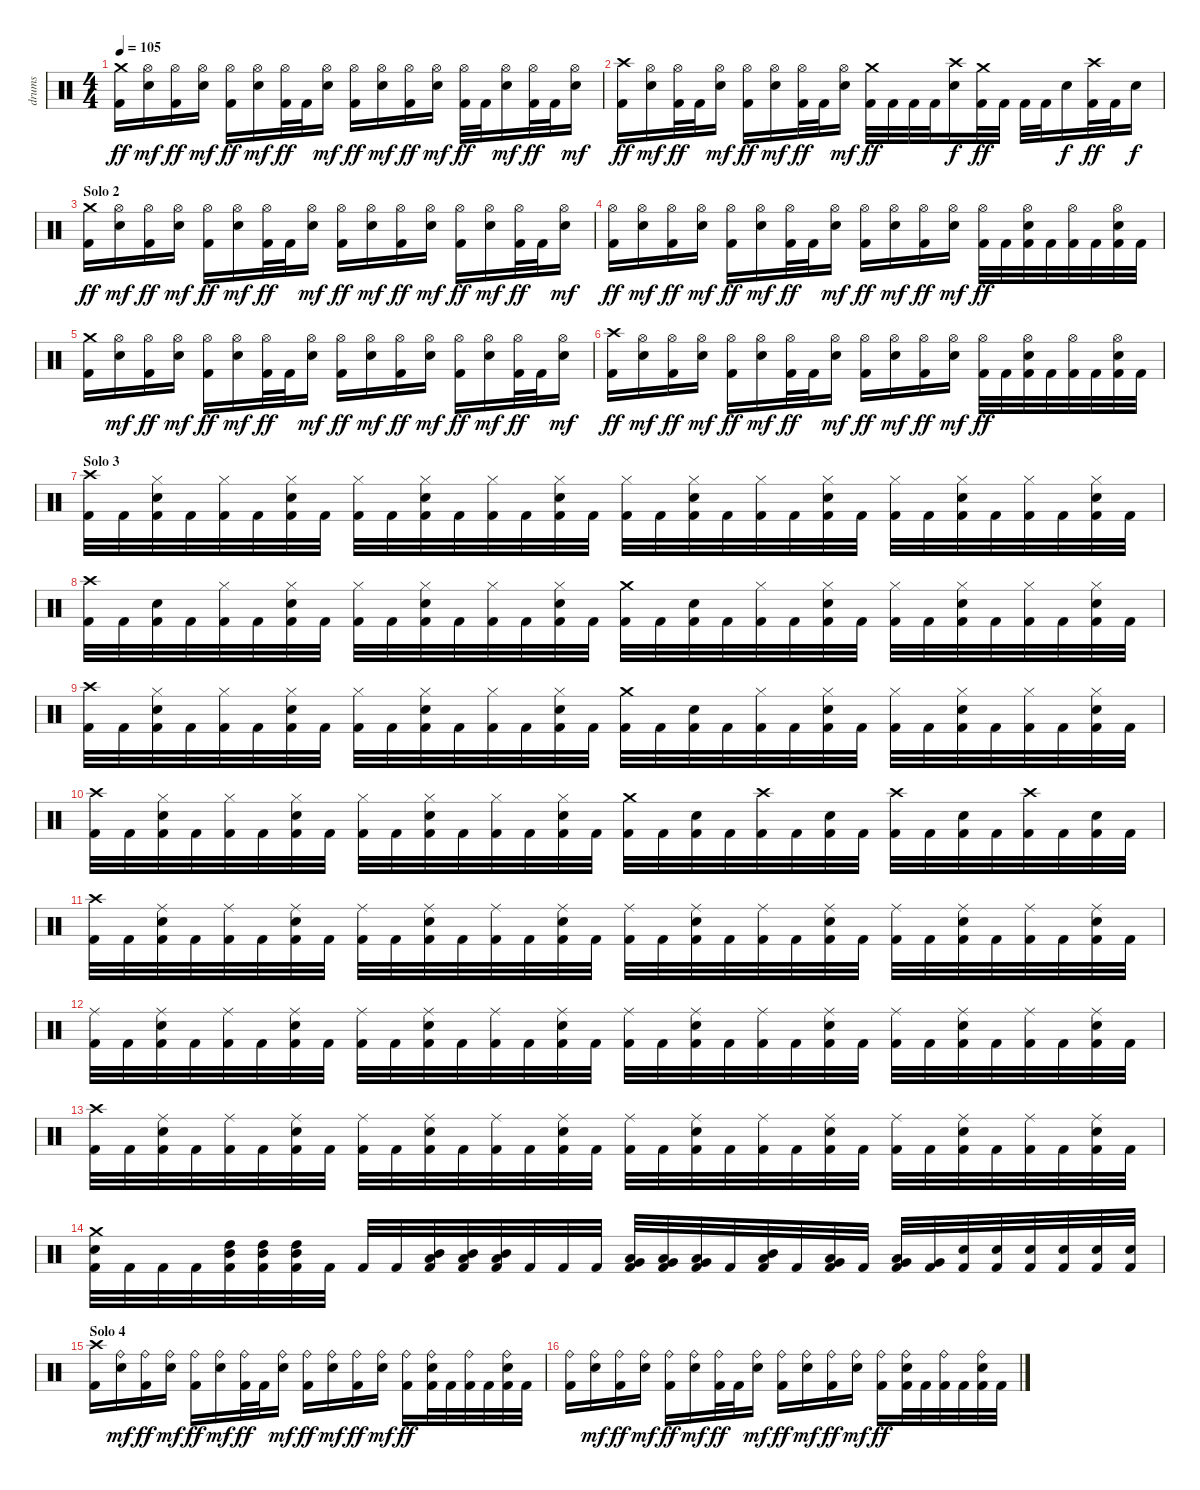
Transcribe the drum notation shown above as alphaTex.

\track ("drums" "drums") {instrument percussion}
\staff {score}
\articulation defaults
\ts (4 4)
\tempo 105
\clef neutral
\ks c
("Crash medium (hit)" "Kick (hit) 2").16{dy ff} ("Hi-Hat (open)" "Snare (hit) 2").16{dy mf} ("Hi-Hat (open)" "Kick (hit) 2").16{dy ff} ("Hi-Hat (open)" "Snare (hit) 2").16{dy mf} ("Hi-Hat (open)" "Kick (hit) 2").16{dy ff} ("Hi-Hat (open)" "Snare (hit) 2").16{dy mf} ("Hi-Hat (open)" "Kick (hit) 2").32{dy ff} "Kick (hit) 2".32 ("Hi-Hat (open)" "Snare (hit) 2").16{dy mf} ("Hi-Hat (open)" "Kick (hit) 2").16{dy ff} ("Hi-Hat (open)" "Snare (hit) 2").16{dy mf} ("Hi-Hat (open)" "Kick (hit) 2").16{dy ff} ("Hi-Hat (open)" "Snare (hit) 2").16{dy mf} ("Hi-Hat (open)" "Kick (hit) 2").32{dy ff} "Kick (hit) 2".32 ("Hi-Hat (open)" "Snare (hit) 2").16{dy mf} ("Hi-Hat (open)" "Kick (hit) 2").32{dy ff} "Kick (hit) 2".32 ("Hi-Hat (open)" "Snare (hit) 2").16{dy mf} |
("Crash high (hit)" "Kick (hit) 2").16{dy ff} ("Hi-Hat (open)" "Snare (hit) 2").16{dy mf} ("Hi-Hat (open)" "Kick (hit) 2").32{dy ff} "Kick (hit) 2".32 ("Hi-Hat (open)" "Snare (hit) 2").16{dy mf} ("Hi-Hat (open)" "Kick (hit) 2").16{dy ff} ("Hi-Hat (open)" "Snare (hit) 2").16{dy mf} ("Hi-Hat (open)" "Kick (hit) 2").32{dy ff} "Kick (hit) 2".32 ("Hi-Hat (open)" "Snare (hit) 2").16{dy mf} ("Crash medium (hit)" "Kick (hit) 2").32{dy ff} "Kick (hit) 2".32 "Kick (hit) 2".32 "Kick (hit) 2".32 ("Crash high (hit)" "Snare (hit) 2").16{dy f} ("Crash medium (hit)" "Kick (hit) 2").32{dy ff} "Kick (hit) 2".32 "Kick (hit) 2".32 "Kick (hit) 2".32 "Snare (hit) 2".16{dy f} ("Crash high (hit)" "Kick (hit) 2").32{dy ff} "Kick (hit) 2".32 "Snare (hit) 2".16{dy f} |
\section ("" "Solo 2")
("Crash medium (hit)" "Kick (hit) 2").16{dy ff} ("Hi-Hat (open)" "Snare (hit) 2").16{dy mf} ("Hi-Hat (open)" "Kick (hit) 2").16{dy ff} ("Hi-Hat (open)" "Snare (hit) 2").16{dy mf} ("Hi-Hat (open)" "Kick (hit) 2").16{dy ff} ("Hi-Hat (open)" "Snare (hit) 2").16{dy mf} ("Hi-Hat (open)" "Kick (hit) 2").32{dy ff} "Kick (hit) 2".32 ("Hi-Hat (open)" "Snare (hit) 2").16{dy mf} ("Hi-Hat (open)" "Kick (hit) 2").16{dy ff} ("Hi-Hat (open)" "Snare (hit) 2").16{dy mf} ("Hi-Hat (open)" "Kick (hit) 2").16{dy ff} ("Hi-Hat (open)" "Snare (hit) 2").16{dy mf} ("Hi-Hat (open)" "Kick (hit) 2").16{dy ff} ("Hi-Hat (open)" "Snare (hit) 2").16{dy mf} ("Hi-Hat (open)" "Kick (hit) 2").32{dy ff} "Kick (hit) 2".32 ("Hi-Hat (open)" "Snare (hit) 2").16{dy mf} |
("Hi-Hat (open)" "Kick (hit) 2").16{dy ff} ("Hi-Hat (open)" "Snare (hit) 2").16{dy mf} ("Hi-Hat (open)" "Kick (hit) 2").16{dy ff} ("Hi-Hat (open)" "Snare (hit) 2").16{dy mf} ("Hi-Hat (open)" "Kick (hit) 2").16{dy ff} ("Hi-Hat (open)" "Snare (hit) 2").16{dy mf} ("Hi-Hat (open)" "Kick (hit) 2").32{dy ff} "Kick (hit) 2".32 ("Hi-Hat (open)" "Snare (hit) 2").16{dy mf} ("Hi-Hat (open)" "Kick (hit) 2").16{dy ff} ("Hi-Hat (open)" "Snare (hit) 2").16{dy mf} ("Hi-Hat (open)" "Kick (hit) 2").16{dy ff} ("Hi-Hat (open)" "Snare (hit) 2").16{dy mf} ("Hi-Hat (open)" "Kick (hit) 2").32{dy ff} "Kick (hit) 2".32 ("Hi-Hat (open)" "Snare (hit) 2" "Kick (hit) 2").32 "Kick (hit) 2".32 ("Hi-Hat (open)" "Kick (hit) 2").32 "Kick (hit) 2".32 ("Hi-Hat (open)" "Snare (hit) 2" "Kick (hit) 2").32 "Kick (hit) 2".32 |
("Crash medium (hit)" "Kick (hit) 2").16 ("Hi-Hat (open)" "Snare (hit) 2").16{dy mf} ("Hi-Hat (open)" "Kick (hit) 2").16{dy ff} ("Hi-Hat (open)" "Snare (hit) 2").16{dy mf} ("Hi-Hat (open)" "Kick (hit) 2").16{dy ff} ("Hi-Hat (open)" "Snare (hit) 2").16{dy mf} ("Hi-Hat (open)" "Kick (hit) 2").32{dy ff} "Kick (hit) 2".32 ("Hi-Hat (open)" "Snare (hit) 2").16{dy mf} ("Hi-Hat (open)" "Kick (hit) 2").16{dy ff} ("Hi-Hat (open)" "Snare (hit) 2").16{dy mf} ("Hi-Hat (open)" "Kick (hit) 2").16{dy ff} ("Hi-Hat (open)" "Snare (hit) 2").16{dy mf} ("Hi-Hat (open)" "Kick (hit) 2").16{dy ff} ("Hi-Hat (open)" "Snare (hit) 2").16{dy mf} ("Hi-Hat (open)" "Kick (hit) 2").32{dy ff} "Kick (hit) 2".32 ("Hi-Hat (open)" "Snare (hit) 2").16{dy mf} |
("Crash high (hit)" "Kick (hit) 2").16{dy ff} ("Hi-Hat (open)" "Snare (hit) 2").16{dy mf} ("Hi-Hat (open)" "Kick (hit) 2").16{dy ff} ("Hi-Hat (open)" "Snare (hit) 2").16{dy mf} ("Hi-Hat (open)" "Kick (hit) 2").16{dy ff} ("Hi-Hat (open)" "Snare (hit) 2").16{dy mf} ("Hi-Hat (open)" "Kick (hit) 2").32{dy ff} "Kick (hit) 2".32 ("Hi-Hat (open)" "Snare (hit) 2").16{dy mf} ("Hi-Hat (open)" "Kick (hit) 2").16{dy ff} ("Hi-Hat (open)" "Snare (hit) 2").16{dy mf} ("Hi-Hat (open)" "Kick (hit) 2").16{dy ff} ("Hi-Hat (open)" "Snare (hit) 2").16{dy mf} ("Hi-Hat (open)" "Kick (hit) 2").32{dy ff} "Kick (hit) 2".32 ("Hi-Hat (open)" "Snare (hit) 2" "Kick (hit) 2").32 "Kick (hit) 2".32 ("Hi-Hat (open)" "Kick (hit) 2").32 "Kick (hit) 2".32 ("Hi-Hat (open)" "Snare (hit) 2" "Kick (hit) 2").32 "Kick (hit) 2".32 |
\section ("" "Solo 3")
("Crash high (hit)" "Kick (hit) 2").32 "Kick (hit) 2".32 ("Hi-Hat (closed)" "Snare (hit) 2" "Kick (hit) 2").32 "Kick (hit) 2".32 ("Hi-Hat (closed)" "Kick (hit) 2").32 "Kick (hit) 2".32 ("Hi-Hat (closed)" "Snare (hit) 2" "Kick (hit) 2").32 "Kick (hit) 2".32 ("Hi-Hat (closed)" "Kick (hit) 2").32 "Kick (hit) 2".32 ("Hi-Hat (closed)" "Snare (hit) 2" "Kick (hit) 2").32 "Kick (hit) 2".32 ("Hi-Hat (closed)" "Kick (hit) 2").32 "Kick (hit) 2".32 ("Hi-Hat (closed)" "Snare (hit) 2" "Kick (hit) 2").32 "Kick (hit) 2".32 ("Hi-Hat (closed)" "Kick (hit) 2").32 "Kick (hit) 2".32 ("Hi-Hat (closed)" "Snare (hit) 2" "Kick (hit) 2").32 "Kick (hit) 2".32 ("Hi-Hat (closed)" "Kick (hit) 2").32 "Kick (hit) 2".32 ("Hi-Hat (closed)" "Snare (hit) 2" "Kick (hit) 2").32 "Kick (hit) 2".32 ("Hi-Hat (closed)" "Kick (hit) 2").32 "Kick (hit) 2".32 ("Hi-Hat (closed)" "Snare (hit) 2" "Kick (hit) 2").32 "Kick (hit) 2".32 ("Hi-Hat (closed)" "Kick (hit) 2").32 "Kick (hit) 2".32 ("Hi-Hat (closed)" "Snare (hit) 2" "Kick (hit) 2").32 "Kick (hit) 2".32 |
("Crash high (hit)" "Kick (hit) 2").32 "Kick (hit) 2".32 ("Snare (hit) 2" "Kick (hit) 2").32 "Kick (hit) 2".32 ("Hi-Hat (closed)" "Kick (hit) 2").32 "Kick (hit) 2".32 ("Hi-Hat (closed)" "Snare (hit) 2" "Kick (hit) 2").32 "Kick (hit) 2".32 ("Hi-Hat (closed)" "Kick (hit) 2").32 "Kick (hit) 2".32 ("Hi-Hat (closed)" "Snare (hit) 2" "Kick (hit) 2").32 "Kick (hit) 2".32 ("Hi-Hat (closed)" "Kick (hit) 2").32 "Kick (hit) 2".32 ("Hi-Hat (closed)" "Snare (hit) 2" "Kick (hit) 2").32 "Kick (hit) 2".32 ("Crash medium (hit)" "Kick (hit) 2").32 "Kick (hit) 2".32 ("Snare (hit) 2" "Kick (hit) 2").32 "Kick (hit) 2".32 ("Hi-Hat (closed)" "Kick (hit) 2").32 "Kick (hit) 2".32 ("Hi-Hat (closed)" "Snare (hit) 2" "Kick (hit) 2").32 "Kick (hit) 2".32 ("Hi-Hat (closed)" "Kick (hit) 2").32 "Kick (hit) 2".32 ("Hi-Hat (closed)" "Snare (hit) 2" "Kick (hit) 2").32 "Kick (hit) 2".32 ("Hi-Hat (closed)" "Kick (hit) 2").32 "Kick (hit) 2".32 ("Hi-Hat (closed)" "Snare (hit) 2" "Kick (hit) 2").32 "Kick (hit) 2".32 |
("Crash high (hit)" "Kick (hit) 2").32 "Kick (hit) 2".32 ("Hi-Hat (closed)" "Snare (hit) 2" "Kick (hit) 2").32 "Kick (hit) 2".32 ("Hi-Hat (closed)" "Kick (hit) 2").32 "Kick (hit) 2".32 ("Hi-Hat (closed)" "Snare (hit) 2" "Kick (hit) 2").32 "Kick (hit) 2".32 ("Hi-Hat (closed)" "Kick (hit) 2").32 "Kick (hit) 2".32 ("Hi-Hat (closed)" "Snare (hit) 2" "Kick (hit) 2").32 "Kick (hit) 2".32 ("Hi-Hat (closed)" "Kick (hit) 2").32 "Kick (hit) 2".32 ("Hi-Hat (closed)" "Snare (hit) 2" "Kick (hit) 2").32 "Kick (hit) 2".32 ("Crash medium (hit)" "Kick (hit) 2").32 "Kick (hit) 2".32 ("Snare (hit) 2" "Kick (hit) 2").32 "Kick (hit) 2".32 ("Hi-Hat (closed)" "Kick (hit) 2").32 "Kick (hit) 2".32 ("Hi-Hat (closed)" "Snare (hit) 2" "Kick (hit) 2").32 "Kick (hit) 2".32 ("Hi-Hat (closed)" "Kick (hit) 2").32 "Kick (hit) 2".32 ("Hi-Hat (closed)" "Snare (hit) 2" "Kick (hit) 2").32 "Kick (hit) 2".32 ("Hi-Hat (closed)" "Kick (hit) 2").32 "Kick (hit) 2".32 ("Hi-Hat (closed)" "Snare (hit) 2" "Kick (hit) 2").32 "Kick (hit) 2".32 |
("Crash high (hit)" "Kick (hit) 2").32 "Kick (hit) 2".32 ("Hi-Hat (closed)" "Snare (hit) 2" "Kick (hit) 2").32 "Kick (hit) 2".32 ("Hi-Hat (closed)" "Kick (hit) 2").32 "Kick (hit) 2".32 ("Hi-Hat (closed)" "Snare (hit) 2" "Kick (hit) 2").32 "Kick (hit) 2".32 ("Hi-Hat (closed)" "Kick (hit) 2").32 "Kick (hit) 2".32 ("Hi-Hat (closed)" "Snare (hit) 2" "Kick (hit) 2").32 "Kick (hit) 2".32 ("Hi-Hat (closed)" "Kick (hit) 2").32 "Kick (hit) 2".32 ("Hi-Hat (closed)" "Snare (hit) 2" "Kick (hit) 2").32 "Kick (hit) 2".32 ("Crash medium (hit)" "Kick (hit) 2").32 "Kick (hit) 2".32 ("Snare (hit) 2" "Kick (hit) 2").32 "Kick (hit) 2".32 ("Crash high (hit)" "Kick (hit) 2").32 "Kick (hit) 2".32 ("Snare (hit) 2" "Kick (hit) 2").32 "Kick (hit) 2".32 ("Crash high (hit)" "Kick (hit) 2").32 "Kick (hit) 2".32 ("Snare (hit) 2" "Kick (hit) 2").32 "Kick (hit) 2".32 ("Crash high (hit)" "Kick (hit) 2").32 "Kick (hit) 2".32 ("Snare (hit) 2" "Kick (hit) 2").32 "Kick (hit) 2".32 |
("Crash high (hit)" "Kick (hit) 2").32 "Kick (hit) 2".32 ("Ride (middle)" "Snare (hit) 2" "Kick (hit) 2").32 "Kick (hit) 2".32 ("Ride (middle)" "Kick (hit) 2").32 "Kick (hit) 2".32 ("Ride (middle)" "Snare (hit) 2" "Kick (hit) 2").32 "Kick (hit) 2".32 ("Ride (middle)" "Kick (hit) 2").32 "Kick (hit) 2".32 ("Ride (middle)" "Snare (hit) 2" "Kick (hit) 2").32 "Kick (hit) 2".32 ("Ride (middle)" "Kick (hit) 2").32 "Kick (hit) 2".32 ("Ride (middle)" "Snare (hit) 2" "Kick (hit) 2").32 "Kick (hit) 2".32 ("Ride (middle)" "Kick (hit) 2").32 "Kick (hit) 2".32 ("Ride (middle)" "Snare (hit) 2" "Kick (hit) 2").32 "Kick (hit) 2".32 ("Ride (middle)" "Kick (hit) 2").32 "Kick (hit) 2".32 ("Ride (middle)" "Snare (hit) 2" "Kick (hit) 2").32 "Kick (hit) 2".32 ("Ride (middle)" "Kick (hit) 2").32 "Kick (hit) 2".32 ("Ride (middle)" "Snare (hit) 2" "Kick (hit) 2").32 "Kick (hit) 2".32 ("Ride (middle)" "Kick (hit) 2").32 "Kick (hit) 2".32 ("Ride (middle)" "Snare (hit) 2" "Kick (hit) 2").32 "Kick (hit) 2".32 |
("Ride (middle)" "Kick (hit) 2").32 "Kick (hit) 2".32 ("Ride (middle)" "Snare (hit) 2" "Kick (hit) 2").32 "Kick (hit) 2".32 ("Ride (middle)" "Kick (hit) 2").32 "Kick (hit) 2".32 ("Ride (middle)" "Snare (hit) 2" "Kick (hit) 2").32 "Kick (hit) 2".32 ("Ride (middle)" "Kick (hit) 2").32 "Kick (hit) 2".32 ("Ride (middle)" "Snare (hit) 2" "Kick (hit) 2").32 "Kick (hit) 2".32 ("Ride (middle)" "Kick (hit) 2").32 "Kick (hit) 2".32 ("Ride (middle)" "Snare (hit) 2" "Kick (hit) 2").32 "Kick (hit) 2".32 ("Ride (middle)" "Kick (hit) 2").32 "Kick (hit) 2".32 ("Ride (middle)" "Snare (hit) 2" "Kick (hit) 2").32 "Kick (hit) 2".32 ("Ride (middle)" "Kick (hit) 2").32 "Kick (hit) 2".32 ("Ride (middle)" "Snare (hit) 2" "Kick (hit) 2").32 "Kick (hit) 2".32 ("Ride (middle)" "Kick (hit) 2").32 "Kick (hit) 2".32 ("Ride (middle)" "Snare (hit) 2" "Kick (hit) 2").32 "Kick (hit) 2".32 ("Ride (middle)" "Kick (hit) 2").32 "Kick (hit) 2".32 ("Ride (middle)" "Snare (hit) 2" "Kick (hit) 2").32 "Kick (hit) 2".32 |
("Crash high (hit)" "Kick (hit) 2").32 "Kick (hit) 2".32 ("Ride (middle)" "Snare (hit) 2" "Kick (hit) 2").32 "Kick (hit) 2".32 ("Ride (middle)" "Kick (hit) 2").32 "Kick (hit) 2".32 ("Ride (middle)" "Snare (hit) 2" "Kick (hit) 2").32 "Kick (hit) 2".32 ("Ride (middle)" "Kick (hit) 2").32 "Kick (hit) 2".32 ("Ride (middle)" "Snare (hit) 2" "Kick (hit) 2").32 "Kick (hit) 2".32 ("Ride (middle)" "Kick (hit) 2").32 "Kick (hit) 2".32 ("Ride (middle)" "Snare (hit) 2" "Kick (hit) 2").32 "Kick (hit) 2".32 ("Ride (middle)" "Kick (hit) 2").32 "Kick (hit) 2".32 ("Ride (middle)" "Snare (hit) 2" "Kick (hit) 2").32 "Kick (hit) 2".32 ("Ride (middle)" "Kick (hit) 2").32 "Kick (hit) 2".32 ("Ride (middle)" "Snare (hit) 2" "Kick (hit) 2").32 "Kick (hit) 2".32 ("Ride (middle)" "Kick (hit) 2").32 "Kick (hit) 2".32 ("Ride (middle)" "Snare (hit) 2" "Kick (hit) 2").32 "Kick (hit) 2".32 ("Ride (middle)" "Kick (hit) 2").32 "Kick (hit) 2".32 ("Ride (middle)" "Snare (hit) 2" "Kick (hit) 2").32 "Kick (hit) 2".32 |
("Crash medium (hit)" "Snare (hit) 2" "Kick (hit) 2").32 "Kick (hit) 2".32 "Kick (hit) 2".32 "Kick (hit) 2".32 ("High Tom (hit)" "Mid Tom (hit)" "Kick (hit) 2").32 ("High Tom (hit)" "Mid Tom (hit)" "Kick (hit) 2").32 ("High Tom (hit)" "Mid Tom (hit)" "Kick (hit) 2").32 "Kick (hit) 2".32 "Kick (hit) 2".32 "Kick (hit) 2".32 ("Mid Tom (hit)" "Low Tom (hit)" "Kick (hit) 2").32 ("Mid Tom (hit)" "Low Tom (hit)" "Kick (hit) 2").32 ("Mid Tom (hit)" "Low Tom (hit)" "Kick (hit) 2").32 "Kick (hit) 2".32 "Kick (hit) 2".32 "Kick (hit) 2".32 ("Low Tom (hit)" "Very Low Tom (hit)" "Kick (hit) 2").32 ("Low Tom (hit)" "Very Low Tom (hit)" "Kick (hit) 2").32 ("Low Tom (hit)" "Very Low Tom (hit)" "Kick (hit) 2").32 "Kick (hit) 2".32 ("Mid Tom (hit)" "Low Tom (hit)" "Kick (hit) 2").32 "Kick (hit) 2".32 ("Low Tom (hit)" "Very Low Tom (hit)" "Kick (hit) 2").32 "Kick (hit) 2".32 ("Very Low Tom (hit)" "Low Floor Tom (hit)" "Kick (hit) 2").32 ("Very Low Tom (hit)" "Kick (hit) 2").32 ("Snare (hit) 2" "Kick (hit) 2").32 ("Snare (hit) 2" "Kick (hit) 2").32 ("Snare (hit) 2" "Kick (hit) 2").32 ("Snare (hit) 2" "Kick (hit) 2").32 ("Snare (hit) 2" "Kick (hit) 2").32 ("Snare (hit) 2" "Kick (hit) 2").32 |
\section ("" "Solo 4")
("Crash high (hit)" "Kick (hit) 2").16 ("Ride (bell)" "Snare (hit) 2").16{dy mf} ("Ride (bell)" "Kick (hit) 2").16{dy ff} ("Ride (bell)" "Snare (hit) 2").16{dy mf} ("Ride (bell)" "Kick (hit) 2").16{dy ff} ("Ride (bell)" "Snare (hit) 2").16{dy mf} ("Ride (bell)" "Kick (hit) 2").32{dy ff} "Kick (hit) 2".32 ("Ride (bell)" "Snare (hit) 2").16{dy mf} ("Ride (bell)" "Kick (hit) 2").16{dy ff} ("Ride (bell)" "Snare (hit) 2").16{dy mf} ("Ride (bell)" "Kick (hit) 2").16{dy ff} ("Ride (bell)" "Snare (hit) 2").16{dy mf} ("Ride (bell)" "Kick (hit) 2").16{dy ff} ("Ride (bell)" "Snare (hit) 2" "Kick (hit) 2").32 "Kick (hit) 2".32 ("Ride (bell)" "Kick (hit) 2").32 "Kick (hit) 2".32 ("Ride (bell)" "Snare (hit) 2" "Kick (hit) 2").32 "Kick (hit) 2".32 |
("Ride (bell)" "Kick (hit) 2").16 ("Ride (bell)" "Snare (hit) 2").16{dy mf} ("Ride (bell)" "Kick (hit) 2").16{dy ff} ("Ride (bell)" "Snare (hit) 2").16{dy mf} ("Ride (bell)" "Kick (hit) 2").16{dy ff} ("Ride (bell)" "Snare (hit) 2").16{dy mf} ("Ride (bell)" "Kick (hit) 2").32{dy ff} "Kick (hit) 2".32 ("Ride (bell)" "Snare (hit) 2").16{dy mf} ("Ride (bell)" "Kick (hit) 2").16{dy ff} ("Ride (bell)" "Snare (hit) 2").16{dy mf} ("Ride (bell)" "Kick (hit) 2").16{dy ff} ("Ride (bell)" "Snare (hit) 2").16{dy mf} ("Ride (bell)" "Kick (hit) 2").16{dy ff} ("Ride (bell)" "Snare (hit) 2" "Kick (hit) 2").32 "Kick (hit) 2".32 ("Ride (bell)" "Kick (hit) 2").32 "Kick (hit) 2".32 ("Ride (bell)" "Snare (hit) 2" "Kick (hit) 2").32 "Kick (hit) 2".32
